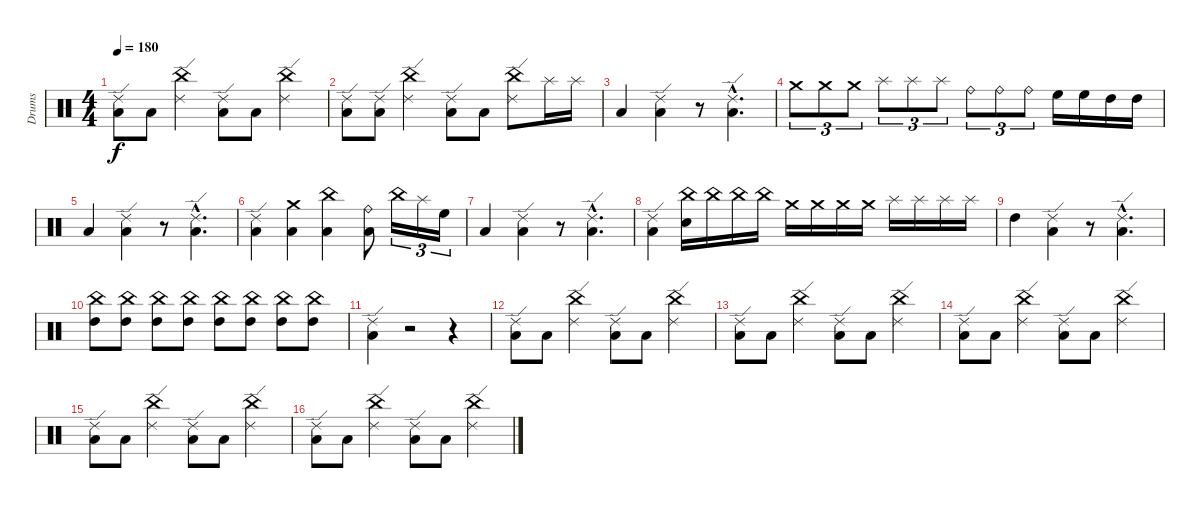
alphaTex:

\track ("Drums" "Drums") {instrument percussion}
\staff {score}
\articulation defaults
\ts (4 4)
\tempo 180
\clef neutral
\ks c
("Ride (edge) 2" "Low Tom (hit)").8{dy f} "Low Tom (hit)".8 ("Ride (edge) 2" "China (hit)").4 ("Ride (edge) 2" "Low Tom (hit)").8 "Low Tom (hit)".8 ("Ride (edge) 2" "China (hit)").4 |
("Low Tom (hit)" "Ride (edge) 2").8 ("Ride (edge) 2" "Low Tom (hit)").8 ("Ride (edge) 2" "China (hit)").4 ("Ride (edge) 2" "Low Tom (hit)").8 "Low Tom (hit)".8 ("Ride (edge) 2" "China (hit)").8 "Splash (hit)".16 "Splash (hit)".16 |
"Low Tom (hit)".4 ("Low Tom (hit)" "Ride (edge) 2").4 r.8 ("Ride (edge) 2"{hac} "Low Tom (hit)"{hac}).4{d} |
"Crash medium (hit)".8{tu (3 2)} "Crash medium (hit)".8{tu (3 2)} "Crash medium (hit)".8{tu (3 2)} "Splash (hit)".8{tu (3 2)} "Splash (hit)".8{tu (3 2)} "Splash (hit)".8{tu (3 2)} "Ride (bell)".8{tu (3 2)} "Ride (bell)".8{tu (3 2)} "Ride (bell)".8{tu (3 2)} "High Floor Tom (hit)".16 "High Floor Tom (hit)".16 "High Tom (hit)".16 "High Tom (hit)".16 |
"Low Tom (hit)".4 ("Ride (edge) 2" "Low Tom (hit)").4 r.8 ("Ride (edge) 2"{hac} "Low Tom (hit)"{hac}).4{d} |
("Ride (edge) 2" "Low Tom (hit)").4 ("Crash medium (hit)" "Low Tom (hit)").4 ("China (hit)" "Low Tom (hit)").4 ("Ride (bell)" "Low Tom (hit)").8 "China (hit)".16{tu (3 2)} "Splash (hit)".16{tu (3 2)} "High Floor Tom (hit)".16{tu (3 2)} |
"Low Tom (hit)".4 ("Low Tom (hit)" "Ride (edge) 2").4 r.8 ("Ride (edge) 2"{hac} "Low Tom (hit)"{hac}).4{d} |
("Low Tom (hit)" "Ride (edge) 2").4 ("Snare (hit)" "China (hit)").16 "China (hit)".16 "China (hit)".16 "China (hit)".16 "Crash medium (hit)".16 "Crash medium (hit)".16 "Crash medium (hit)".16 "Crash medium (hit)".16 "Splash (hit)".16 "Splash (hit)".16 "Splash (hit)".16 "Splash (hit)".16 |
"High Tom (hit)".4 ("Ride (edge) 2" "Low Tom (hit)").4 r.8 ("Ride (edge) 2"{hac} "Low Tom (hit)"{hac}).4{d} |
("China (hit)" "High Tom (hit)").8 ("China (hit)" "High Tom (hit)").8 ("China (hit)" "High Tom (hit)").8 ("High Tom (hit)" "China (hit)").8 ("China (hit)" "High Tom (hit)").8 ("High Tom (hit)" "China (hit)").8 ("High Tom (hit)" "China (hit)").8 ("China (hit)" "High Tom (hit)").8 |
("Low Tom (hit)" "Ride (edge) 2").4 r.2 r.4 |
("Low Tom (hit)" "Ride (edge) 2").8 "Low Tom (hit)".8 ("China (hit)" "Ride (edge) 2").4 ("Low Tom (hit)" "Ride (edge) 2").8 "Low Tom (hit)".8 ("China (hit)" "Ride (edge) 2").4 |
("Low Tom (hit)" "Ride (edge) 2").8 "Low Tom (hit)".8 ("China (hit)" "Ride (edge) 2").4 ("Low Tom (hit)" "Ride (edge) 2").8 "Low Tom (hit)".8 ("China (hit)" "Ride (edge) 2").4 |
("Low Tom (hit)" "Ride (edge) 2").8 "Low Tom (hit)".8 ("China (hit)" "Ride (edge) 2").4 ("Low Tom (hit)" "Ride (edge) 2").8 "Low Tom (hit)".8 ("China (hit)" "Ride (edge) 2").4 |
("Low Tom (hit)" "Ride (edge) 2").8 "Low Tom (hit)".8 ("China (hit)" "Ride (edge) 2").4 ("Low Tom (hit)" "Ride (edge) 2").8 "Low Tom (hit)".8 ("China (hit)" "Ride (edge) 2").4 |
("Low Tom (hit)" "Ride (edge) 2").8 "Low Tom (hit)".8 ("China (hit)" "Ride (edge) 2").4 ("Low Tom (hit)" "Ride (edge) 2").8 "Low Tom (hit)".8 ("China (hit)" "Ride (edge) 2").4
